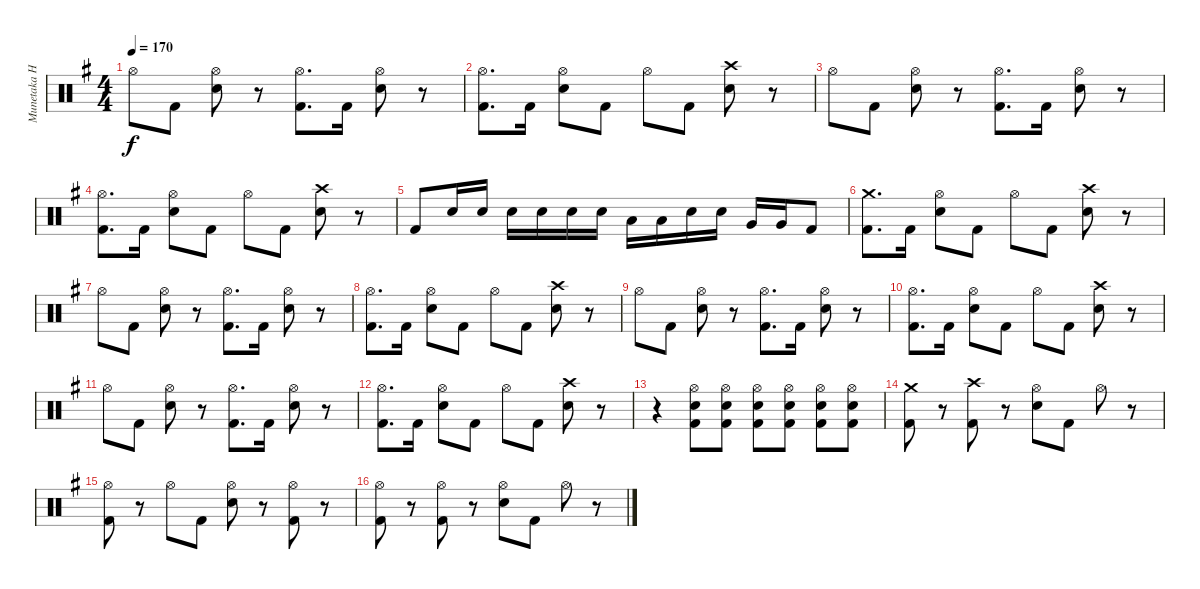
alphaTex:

\track ("Munetaka Higuchi" "Munetaka H") {instrument percussion}
\staff {score}
\articulation defaults
\ts (4 4)
\tempo 170
\clef neutral
\ks eminor "Hi-Hat (open)".8{dy f} "Kick (hit) 2".8
("Hi-Hat (open)" "Electric Snare (hit)").8 r.8 ("Hi-Hat (open)" "Kick (hit) 2").8{d} "Kick (hit) 2".16 ("Hi-Hat (open)" "Electric Snare (hit)").8 r.8 |
("Hi-Hat (open)" "Kick (hit) 2").8{d} "Kick (hit) 2".16 ("Hi-Hat (open)" "Electric Snare (hit)").8 "Kick (hit) 2".8 "Hi-Hat (open)".8 "Kick (hit) 2".8 ("Crash high (hit)" "Electric Snare (hit)").8 r.8 |
"Hi-Hat (open)".8 "Kick (hit) 2".8 ("Hi-Hat (open)" "Electric Snare (hit)").8 r.8 ("Hi-Hat (open)" "Kick (hit) 2").8{d} "Kick (hit) 2".16 ("Hi-Hat (open)" "Electric Snare (hit)").8 r.8 |
("Hi-Hat (open)" "Kick (hit) 2").8{d} "Kick (hit) 2".16 ("Hi-Hat (open)" "Electric Snare (hit)").8 "Kick (hit) 2".8 "Hi-Hat (open)".8 "Kick (hit) 2".8 ("Crash high (hit)" "Electric Snare (hit)").8 r.8 |
"Kick (hit) 2".8 "Electric Snare (hit)".16 "Electric Snare (hit)".16 "Electric Snare (hit)".16 "Electric Snare (hit)".16 "Electric Snare (hit)".16 "Electric Snare (hit)".16 "Low Tom (hit)".16 "Low Tom (hit)".16 "Electric Snare (hit)".16 "Electric Snare (hit)".16 "Very Low Tom (hit)".16 "Very Low Tom (hit)".16 "Kick (hit) 2".8 |
("Crash medium (hit)" "Kick (hit) 2").8{d} "Kick (hit) 2".16 ("Hi-Hat (open)" "Electric Snare (hit)").8 "Kick (hit) 2".8 "Hi-Hat (open)".8 "Kick (hit) 2".8 ("Crash high (hit)" "Electric Snare (hit)").8 r.8 |
"Hi-Hat (open)".8 "Kick (hit) 2".8 ("Hi-Hat (open)" "Electric Snare (hit)").8 r.8 ("Hi-Hat (open)" "Kick (hit) 2").8{d} "Kick (hit) 2".16 ("Hi-Hat (open)" "Electric Snare (hit)").8 r.8 |
("Hi-Hat (open)" "Kick (hit) 2").8{d} "Kick (hit) 2".16 ("Hi-Hat (open)" "Electric Snare (hit)").8 "Kick (hit) 2".8 "Hi-Hat (open)".8 "Kick (hit) 2".8 ("Crash high (hit)" "Electric Snare (hit)").8 r.8 |
"Hi-Hat (open)".8 "Kick (hit) 2".8 ("Hi-Hat (open)" "Electric Snare (hit)").8 r.8 ("Hi-Hat (open)" "Kick (hit) 2").8{d} "Kick (hit) 2".16 ("Hi-Hat (open)" "Electric Snare (hit)").8 r.8 |
("Hi-Hat (open)" "Kick (hit) 2").8{d} "Kick (hit) 2".16 ("Hi-Hat (open)" "Electric Snare (hit)").8 "Kick (hit) 2".8 "Hi-Hat (open)".8 "Kick (hit) 2".8 ("Crash high (hit)" "Electric Snare (hit)").8 r.8 |
"Hi-Hat (open)".8 "Kick (hit) 2".8 ("Hi-Hat (open)" "Electric Snare (hit)").8 r.8 ("Hi-Hat (open)" "Kick (hit) 2").8{d} "Kick (hit) 2".16 ("Hi-Hat (open)" "Electric Snare (hit)").8 r.8 |
("Hi-Hat (open)" "Kick (hit) 2").8{d} "Kick (hit) 2".16 ("Hi-Hat (open)" "Electric Snare (hit)").8 "Kick (hit) 2".8 "Hi-Hat (open)".8 "Kick (hit) 2".8 ("Crash high (hit)" "Electric Snare (hit)").8 r.8 |
r.4 ("Hi-Hat (open)" "Electric Snare (hit)" "Kick (hit) 2").8 ("Hi-Hat (open)" "Electric Snare (hit)" "Kick (hit) 2").8 ("Hi-Hat (open)" "Electric Snare (hit)" "Kick (hit) 2").8 ("Hi-Hat (open)" "Electric Snare (hit)" "Kick (hit) 2").8 ("Hi-Hat (open)" "Electric Snare (hit)" "Kick (hit) 2").8 ("Hi-Hat (open)" "Electric Snare (hit)" "Kick (hit) 2").8 |
("Crash medium (hit)" "Kick (hit) 2").8 r.8 ("Crash high (hit)" "Kick (hit) 2").8 r.8 ("Hi-Hat (open)" "Electric Snare (hit)").8 "Kick (hit) 2".8 "Hi-Hat (open)".8 r.8 |
("Hi-Hat (open)" "Kick (hit) 2").8 r.8 "Hi-Hat (open)".8 "Kick (hit) 2".8 ("Hi-Hat (open)" "Electric Snare (hit)").8 r.8 ("Hi-Hat (open)" "Kick (hit) 2").8 r.8 |
("Hi-Hat (open)" "Kick (hit) 2").8 r.8 ("Hi-Hat (open)" "Kick (hit) 2").8 r.8 ("Hi-Hat (open)" "Electric Snare (hit)").8 "Kick (hit) 2".8 "Hi-Hat (open)".8 r.8
